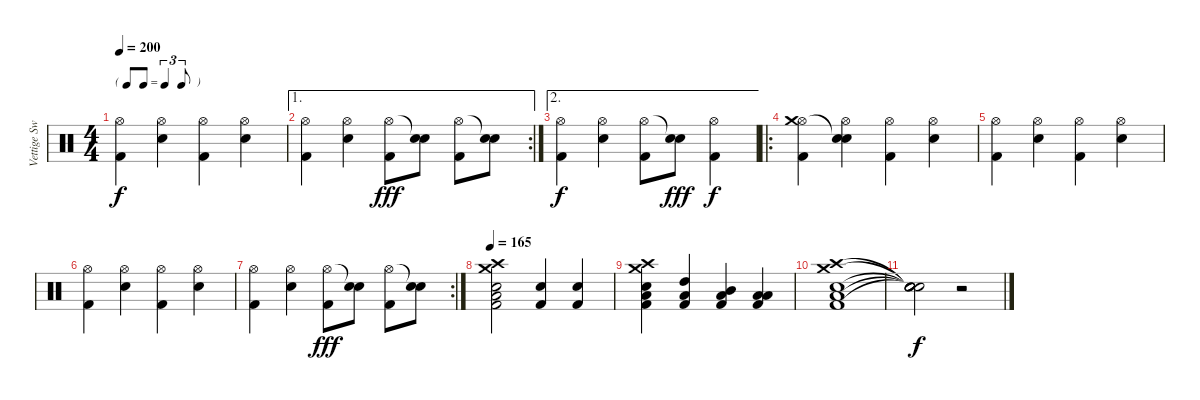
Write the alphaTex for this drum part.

\track ("Vettige Swa" "Vettige Sw") {instrument percussion}
\staff {score}
\articulation defaults
\ts (4 4)
\tf triplet8th
\tempo 200
\clef neutral
\ks c
("Hi-Hat (open)" "Kick (hit) 2").4{dy f} ("Hi-Hat (open)" "Electric Snare (hit)").4 ("Hi-Hat (open)" "Kick (hit) 2").4 ("Hi-Hat (open)" "Electric Snare (hit)").4 |
\ae 1
\rc 2
("Hi-Hat (open)" "Kick (hit) 2").4 ("Hi-Hat (open)" "Electric Snare (hit)").4 ("Hi-Hat (open)" "Kick (hit) 2").8{dy fff} ("Snare (hit)"{t} "Electric Snare (hit)").8 ("Hi-Hat (open)" "Kick (hit) 2").8 ("Snare (hit)"{t} "Electric Snare (hit)").8 |
\ae 2
("Hi-Hat (open)" "Kick (hit) 2").4{dy f} ("Hi-Hat (open)" "Electric Snare (hit)").4 ("Hi-Hat (open)" "Kick (hit) 2").8 ("Snare (hit)"{t} "Electric Snare (hit)").8{dy fff} ("Hi-Hat (open)" "Kick (hit) 2").4{dy f} |
\ro
("Hi-Hat (open)" "Kick (hit) 2" "Crash medium (hit)").4 ("Hi-Hat (open)" "Electric Snare (hit)" "Snare (hit)"{t}).4 ("Hi-Hat (open)" "Kick (hit) 2").4 ("Hi-Hat (open)" "Electric Snare (hit)").4 |
("Hi-Hat (open)" "Kick (hit) 2").4 ("Hi-Hat (open)" "Electric Snare (hit)").4 ("Hi-Hat (open)" "Kick (hit) 2").4 ("Hi-Hat (open)" "Electric Snare (hit)").4 |
("Hi-Hat (open)" "Kick (hit) 2").4 ("Hi-Hat (open)" "Electric Snare (hit)").4 ("Hi-Hat (open)" "Kick (hit) 2").4 ("Hi-Hat (open)" "Electric Snare (hit)").4 |
\rc 2
("Hi-Hat (open)" "Kick (hit) 2").4 ("Hi-Hat (open)" "Electric Snare (hit)").4 ("Hi-Hat (open)" "Kick (hit) 2").8{dy fff} ("Snare (hit)"{t} "Electric Snare (hit)").8 ("Hi-Hat (open)" "Kick (hit) 2").8 ("Snare (hit)"{t} "Electric Snare (hit)").8 |
\tempo 165
("Electric Snare (hit)" "Kick (hit) 2" "Crash medium (hit)" "Low Floor Tom (hit)" "Crash high (hit)").2 ("Electric Snare (hit)" "Kick (hit) 2").4 ("Electric Snare (hit)" "Kick (hit) 2").4 |
("Electric Snare (hit)" "Kick (hit) 2" "Crash medium (hit)" "Low Floor Tom (hit)" "Crash high (hit)").4 ("Kick (hit) 2" "Low Floor Tom (hit)" "High Tom (hit)").4 ("Kick (hit) 2" "Low Floor Tom (hit)" "Mid Tom (hit)").4 ("Kick (hit) 2" "Low Floor Tom (hit)" "Low Tom (hit)").4 |
("Electric Snare (hit)" "Kick (hit) 2" "Crash medium (hit)" "Low Floor Tom (hit)" "Crash high (hit)").1 |
("Snare (hit)"{t} "Snare (hit)"{t} "Snare (hit)"{t} "Snare (hit)"{t} "Snare (hit)"{t}).2{dy f} r.2
